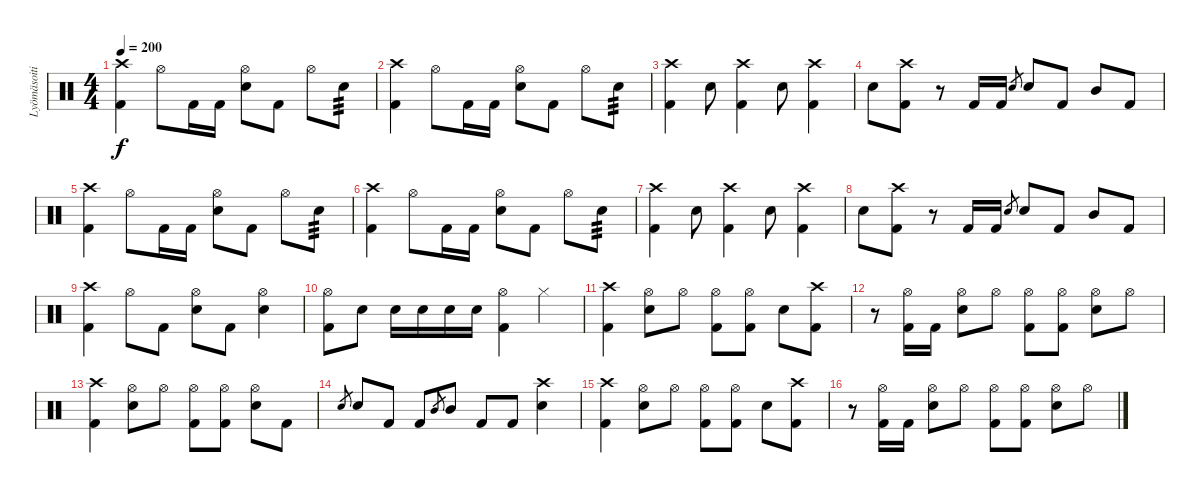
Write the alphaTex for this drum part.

\track ("Lyömäsoitin" "Lyömäsoiti") {instrument percussion}
\staff {score}
\articulation defaults
\ts (4 4)
\tempo 200
\clef neutral
\ks c
("Crash high (hit)" "Kick (hit) 2").4{dy f} "Hi-Hat (open)".8 "Kick (hit) 2".16 "Kick (hit) 2".16 ("Hi-Hat (open)" "Snare (hit) 2").8 "Kick (hit) 2".8 "Hi-Hat (open)".8 "Snare (hit) 2".8{tp 3} |
("Crash high (hit)" "Kick (hit) 2").4 "Hi-Hat (open)".8 "Kick (hit) 2".16 "Kick (hit) 2".16 ("Hi-Hat (open)" "Snare (hit) 2").8 "Kick (hit) 2".8 "Hi-Hat (open)".8 "Snare (hit) 2".8{tp 3} |
("Crash high (hit)" "Kick (hit) 2").4 "Snare (hit) 2".8 ("Crash high (hit)" "Kick (hit) 2").4 "Snare (hit) 2".8 ("Crash high (hit)" "Kick (hit) 2").4 |
"Snare (hit) 2".8 ("Crash high (hit)" "Kick (hit) 2").8 r.8 "Kick (hit) 2".16 "Kick (hit) 2".16 "Snare (hit) 2".8{gr} "Snare (hit) 2".8 "Kick (hit) 2".8 "Mid Tom (hit)".8 "Kick (hit) 2".8 |
("Crash high (hit)" "Kick (hit) 2").4 "Hi-Hat (open)".8 "Kick (hit) 2".16 "Kick (hit) 2".16 ("Hi-Hat (open)" "Snare (hit) 2").8 "Kick (hit) 2".8 "Hi-Hat (open)".8 "Snare (hit) 2".8{tp 3} |
("Crash high (hit)" "Kick (hit) 2").4 "Hi-Hat (open)".8 "Kick (hit) 2".16 "Kick (hit) 2".16 ("Hi-Hat (open)" "Snare (hit) 2").8 "Kick (hit) 2".8 "Hi-Hat (open)".8 "Snare (hit) 2".8{tp 3} |
("Crash high (hit)" "Kick (hit) 2").4 "Snare (hit) 2".8 ("Crash high (hit)" "Kick (hit) 2").4 "Snare (hit) 2".8 ("Crash high (hit)" "Kick (hit) 2").4 |
"Snare (hit) 2".8 ("Crash high (hit)" "Kick (hit) 2").8 r.8 "Kick (hit) 2".16 "Kick (hit) 2".16 "Snare (hit) 2".8{gr} "Snare (hit) 2".8 "Kick (hit) 2".8 "Mid Tom (hit)".8 "Kick (hit) 2".8 |
("Crash high (hit)" "Kick (hit) 2").4 "Hi-Hat (open)".8 "Kick (hit) 2".8 ("Hi-Hat (open)" "Snare (hit) 2").8 "Kick (hit) 2".8 ("Hi-Hat (open)" "Snare (hit) 2").4 |
("Hi-Hat (open)" "Kick (hit) 2").8 "Snare (hit) 2".8 "Snare (hit) 2".16 "Snare (hit) 2".16 "Snare (hit) 2".16 "Snare (hit) 2".16 ("Hi-Hat (open)" "Kick (hit) 2").4 "Hi-Hat (closed)".4 |
("Crash high (hit)" "Kick (hit) 2").4 ("Hi-Hat (open)" "Snare (hit) 2").8 "Hi-Hat (open)".8 ("Hi-Hat (open)" "Kick (hit) 2").8 ("Hi-Hat (open)" "Kick (hit) 2").8 "Snare (hit) 2".8 ("Crash high (hit)" "Kick (hit) 2").8 |
r.8 ("Hi-Hat (open)" "Kick (hit) 2").16 "Kick (hit) 2".16 ("Hi-Hat (open)" "Snare (hit) 2").8 "Hi-Hat (open)".8 ("Hi-Hat (open)" "Kick (hit) 2").8 ("Hi-Hat (open)" "Kick (hit) 2").8 ("Hi-Hat (open)" "Snare (hit) 2").8 "Hi-Hat (open)".8 |
("Crash high (hit)" "Kick (hit) 2").4 ("Hi-Hat (open)" "Snare (hit) 2").8 "Hi-Hat (open)".8 ("Hi-Hat (open)" "Kick (hit) 2").8 ("Hi-Hat (open)" "Kick (hit) 2").8 ("Hi-Hat (open)" "Snare (hit) 2").8 "Kick (hit) 2".8 |
"Snare (hit) 2".8{gr} "Snare (hit) 2".8 "Kick (hit) 2".8 "Kick (hit) 2".8 "Mid Tom (hit)".8{gr} "Mid Tom (hit)".8 "Kick (hit) 2".8 "Kick (hit) 2".8 ("Crash high (hit)" "Snare (hit) 2").4 |
("Crash high (hit)" "Kick (hit) 2").4 ("Hi-Hat (open)" "Snare (hit) 2").8 "Hi-Hat (open)".8 ("Hi-Hat (open)" "Kick (hit) 2").8 ("Hi-Hat (open)" "Kick (hit) 2").8 "Snare (hit) 2".8 ("Crash high (hit)" "Kick (hit) 2").8 |
r.8 ("Hi-Hat (open)" "Kick (hit) 2").16 "Kick (hit) 2".16 ("Hi-Hat (open)" "Snare (hit) 2").8 "Hi-Hat (open)".8 ("Hi-Hat (open)" "Kick (hit) 2").8 ("Hi-Hat (open)" "Kick (hit) 2").8 ("Hi-Hat (open)" "Snare (hit) 2").8 "Hi-Hat (open)".8
